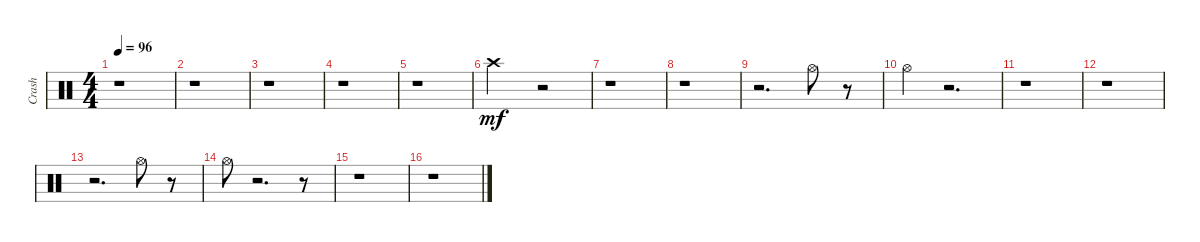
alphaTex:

\track ("Crash" "Crash") {instrument percussion}
\staff {score}
\articulation defaults
\ts (4 4)
\tempo 96
\clef neutral
\ks c
r.1{dy mf} |
r.1 |
r.1 |
r.1 |
r.1 |
"Crash high (hit)".2 r.2 |
r.1 |
r.1 |
r.2{d} "Hi-Hat (open)".8 r.8 |
"Hi-Hat (open)".4 r.2{d} |
r.1 |
r.1 |
r.2{d} "Hi-Hat (open)".8 r.8 |
"Hi-Hat (open)".8 r.2{d} r.8 |
r.1 |
r.1
